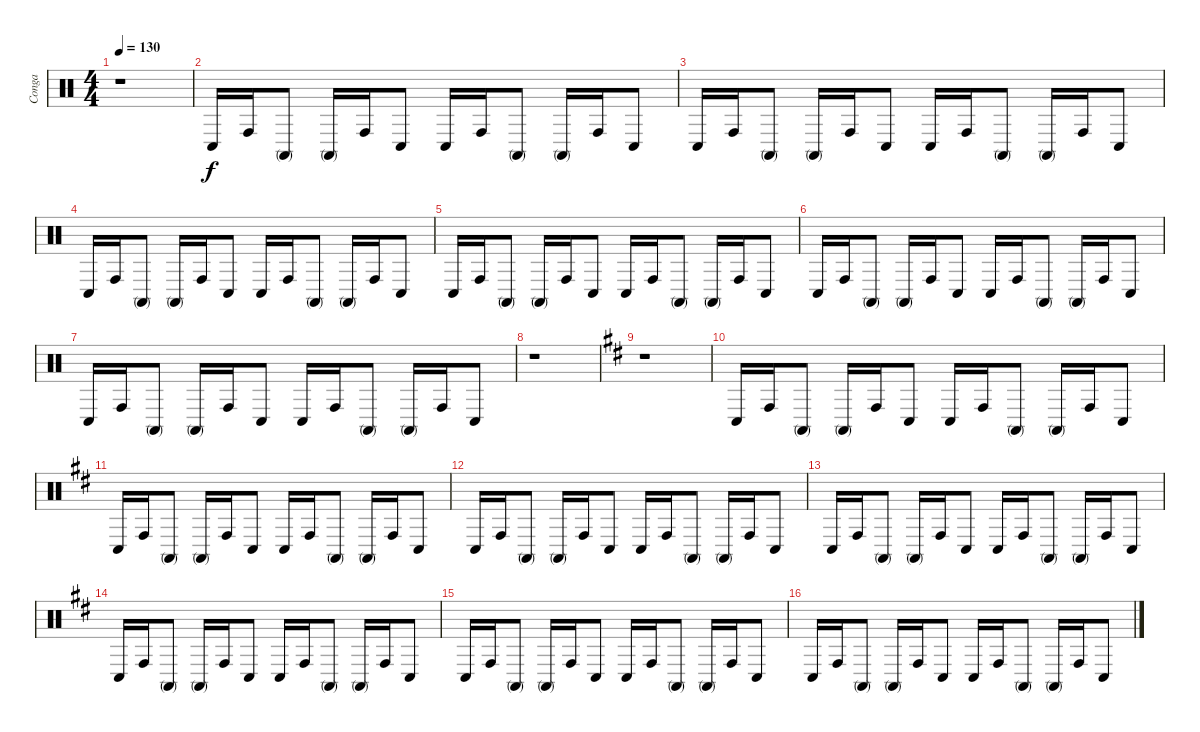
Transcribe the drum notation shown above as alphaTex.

\track ("Conga" "Conga") {instrument percussion}
\staff {score}
\articulation defaults
\ts (4 4)
\tempo 130
\clef neutral
\ks c
r.1{dy f} |
"Conga low (hit)".16 "Conga high (hit)".16 "Conga high (mute)".8 "Conga high (mute)".16 "Conga high (hit)".16 "Conga low (hit)".8 "Conga low (hit)".16 "Conga high (hit)".16 "Conga high (mute)".8 "Conga high (mute)".16 "Conga high (hit)".16 "Conga low (hit)".8 |
"Conga low (hit)".16 "Conga high (hit)".16 "Conga high (mute)".8 "Conga high (mute)".16 "Conga high (hit)".16 "Conga low (hit)".8 "Conga low (hit)".16 "Conga high (hit)".16 "Conga high (mute)".8 "Conga high (mute)".16 "Conga high (hit)".16 "Conga low (hit)".8 |
"Conga low (hit)".16 "Conga high (hit)".16 "Conga high (mute)".8 "Conga high (mute)".16 "Conga high (hit)".16 "Conga low (hit)".8 "Conga low (hit)".16 "Conga high (hit)".16 "Conga high (mute)".8 "Conga high (mute)".16 "Conga high (hit)".16 "Conga low (hit)".8 |
"Conga low (hit)".16 "Conga high (hit)".16 "Conga high (mute)".8 "Conga high (mute)".16 "Conga high (hit)".16 "Conga low (hit)".8 "Conga low (hit)".16 "Conga high (hit)".16 "Conga high (mute)".8 "Conga high (mute)".16 "Conga high (hit)".16 "Conga low (hit)".8 |
"Conga low (hit)".16 "Conga high (hit)".16 "Conga high (mute)".8 "Conga high (mute)".16 "Conga high (hit)".16 "Conga low (hit)".8 "Conga low (hit)".16 "Conga high (hit)".16 "Conga high (mute)".8 "Conga high (mute)".16 "Conga high (hit)".16 "Conga low (hit)".8 |
"Conga low (hit)".16 "Conga high (hit)".16 "Conga high (mute)".8 "Conga high (mute)".16 "Conga high (hit)".16 "Conga low (hit)".8 "Conga low (hit)".16 "Conga high (hit)".16 "Conga high (mute)".8 "Conga high (mute)".16 "Conga high (hit)".16 "Conga low (hit)".8 |
r.1 |
\ks d
r.1 |
"Conga low (hit)".16 "Conga high (hit)".16 "Conga high (mute)".8 "Conga high (mute)".16 "Conga high (hit)".16 "Conga low (hit)".8 "Conga low (hit)".16 "Conga high (hit)".16 "Conga high (mute)".8 "Conga high (mute)".16 "Conga high (hit)".16 "Conga low (hit)".8 |
"Conga low (hit)".16 "Conga high (hit)".16 "Conga high (mute)".8 "Conga high (mute)".16 "Conga high (hit)".16 "Conga low (hit)".8 "Conga low (hit)".16 "Conga high (hit)".16 "Conga high (mute)".8 "Conga high (mute)".16 "Conga high (hit)".16 "Conga low (hit)".8 |
"Conga low (hit)".16 "Conga high (hit)".16 "Conga high (mute)".8 "Conga high (mute)".16 "Conga high (hit)".16 "Conga low (hit)".8 "Conga low (hit)".16 "Conga high (hit)".16 "Conga high (mute)".8 "Conga high (mute)".16 "Conga high (hit)".16 "Conga low (hit)".8 |
"Conga low (hit)".16 "Conga high (hit)".16 "Conga high (mute)".8 "Conga high (mute)".16 "Conga high (hit)".16 "Conga low (hit)".8 "Conga low (hit)".16 "Conga high (hit)".16 "Conga high (mute)".8 "Conga high (mute)".16 "Conga high (hit)".16 "Conga low (hit)".8 |
"Conga low (hit)".16 "Conga high (hit)".16 "Conga high (mute)".8 "Conga high (mute)".16 "Conga high (hit)".16 "Conga low (hit)".8 "Conga low (hit)".16 "Conga high (hit)".16 "Conga high (mute)".8 "Conga high (mute)".16 "Conga high (hit)".16 "Conga low (hit)".8 |
"Conga low (hit)".16 "Conga high (hit)".16 "Conga high (mute)".8 "Conga high (mute)".16 "Conga high (hit)".16 "Conga low (hit)".8 "Conga low (hit)".16 "Conga high (hit)".16 "Conga high (mute)".8 "Conga high (mute)".16 "Conga high (hit)".16 "Conga low (hit)".8 |
"Conga low (hit)".16 "Conga high (hit)".16 "Conga high (mute)".8 "Conga high (mute)".16 "Conga high (hit)".16 "Conga low (hit)".8 "Conga low (hit)".16 "Conga high (hit)".16 "Conga high (mute)".8 "Conga high (mute)".16 "Conga high (hit)".16 "Conga low (hit)".8
